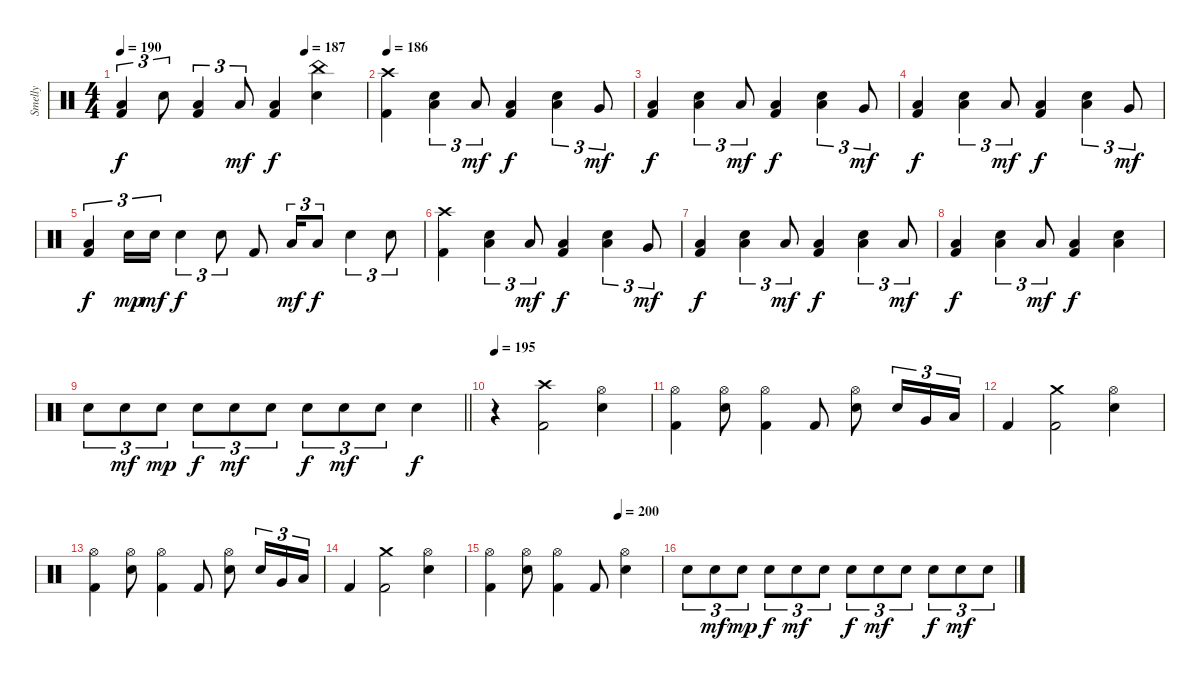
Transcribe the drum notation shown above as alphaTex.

\track ("Smelly" "Smelly") {instrument percussion}
\staff {score}
\articulation defaults
\ts (4 4)
\tempo 190
\tempo (187 0.75)
\clef neutral
\ks c
("Low Floor Tom (hit)" "Kick (hit) 2").4{tu (3 2) dy f} "Electric Snare (hit)".8{tu (3 2)} ("Low Floor Tom (hit)" "Kick (hit) 2").4{tu (3 2)} "Low Floor Tom (hit)".8{tu (3 2) dy mf} ("Low Floor Tom (hit)" "Kick (hit) 2").4{dy f} ("China (hit)" "Electric Snare (hit)").4 |
\tempo 186
("Crash high (hit)" "Kick (hit) 2").4 ("Electric Snare (hit)" "Low Floor Tom (hit)").4{tu (3 2)} "Low Floor Tom (hit)".8{tu (3 2) dy mf} ("Low Floor Tom (hit)" "Kick (hit) 2").4{dy f} ("Electric Snare (hit)" "Low Floor Tom (hit)").4{tu (3 2)} "Very Low Tom (hit)".8{tu (3 2) dy mf} |
("Low Floor Tom (hit)" "Kick (hit) 2").4{dy f} ("Electric Snare (hit)" "Low Floor Tom (hit)").4{tu (3 2)} "Low Floor Tom (hit)".8{tu (3 2) dy mf} ("Low Floor Tom (hit)" "Kick (hit) 2").4{dy f} ("Electric Snare (hit)" "Low Floor Tom (hit)").4{tu (3 2)} "Very Low Tom (hit)".8{tu (3 2) dy mf} |
("Low Floor Tom (hit)" "Kick (hit) 2").4{dy f} ("Electric Snare (hit)" "Low Floor Tom (hit)").4{tu (3 2)} "Low Floor Tom (hit)".8{tu (3 2) dy mf} ("Low Floor Tom (hit)" "Kick (hit) 2").4{dy f} ("Electric Snare (hit)" "Low Floor Tom (hit)").4{tu (3 2)} "Very Low Tom (hit)".8{tu (3 2) dy mf} |
("Low Floor Tom (hit)" "Kick (hit) 2").4{tu (3 2) dy f} "Electric Snare (hit)".16{tu (3 2) dy mp} "Electric Snare (hit)".16{tu (3 2) dy mf} "Electric Snare (hit)".4{tu (3 2) dy f} "Electric Snare (hit)".8{tu (3 2)} "Kick (hit) 2".8 "Low Tom (hit)".16{tu (3 2) dy mf} "Low Tom (hit)".8{tu (3 2) dy f} "Electric Snare (hit)".4{tu (3 2)} "Electric Snare (hit)".8{tu (3 2)} |
("Crash high (hit)" "Kick (hit) 2").4 ("Electric Snare (hit)" "Low Floor Tom (hit)").4{tu (3 2)} "Low Floor Tom (hit)".8{tu (3 2) dy mf} ("Low Floor Tom (hit)" "Kick (hit) 2").4{dy f} ("Electric Snare (hit)" "Low Floor Tom (hit)").4{tu (3 2)} "Very Low Tom (hit)".8{tu (3 2) dy mf} |
("Low Floor Tom (hit)" "Kick (hit) 2").4{dy f} ("Electric Snare (hit)" "Low Floor Tom (hit)").4{tu (3 2)} "Low Floor Tom (hit)".8{tu (3 2) dy mf} ("Low Floor Tom (hit)" "Kick (hit) 2").4{dy f} ("Electric Snare (hit)" "Low Floor Tom (hit)").4{tu (3 2)} "Low Floor Tom (hit)".8{tu (3 2) dy mf} |
("Low Floor Tom (hit)" "Kick (hit) 2").4{dy f} ("Electric Snare (hit)" "Low Floor Tom (hit)").4{tu (3 2)} "Low Floor Tom (hit)".8{tu (3 2) dy mf} ("Low Floor Tom (hit)" "Kick (hit) 2").4{dy f} ("Electric Snare (hit)" "Low Floor Tom (hit)").4 |
\barLineRight lightlight "Electric Snare (hit)".8{tu (3 2)} "Electric Snare (hit)".8{tu (3 2) dy mf} "Electric Snare (hit)".8{tu (3 2) dy mp} "Electric Snare (hit)".8{tu (3 2) dy f} "Electric Snare (hit)".8{tu (3 2) dy mf} "Electric Snare (hit)".8{tu (3 2)} "Electric Snare (hit)".8{tu (3 2) dy f} "Electric Snare (hit)".8{tu (3 2) dy mf} "Electric Snare (hit)".8{tu (3 2)} "Electric Snare (hit)".4{dy f}
|
\section ("" "")
\tempo 195
r.4 ("Crash high (hit)" "Kick (hit) 2").2 ("Hi-Hat (open)" "Electric Snare (hit)").4 |
("Hi-Hat (open)" "Kick (hit) 2").4 ("Hi-Hat (open)" "Electric Snare (hit)").8 ("Hi-Hat (open)" "Kick (hit) 2").4 "Kick (hit) 2".8 ("Hi-Hat (open)" "Electric Snare (hit)").8 "Electric Snare (hit)".16{tu (3 2)} "Very Low Tom (hit)".16{tu (3 2)} "Low Floor Tom (hit)".16{tu (3 2)} |
"Kick (hit) 2".4 ("Crash medium (hit)" "Kick (hit) 2").2 ("Hi-Hat (open)" "Electric Snare (hit)").4 |
("Hi-Hat (open)" "Kick (hit) 2").4 ("Hi-Hat (open)" "Electric Snare (hit)").8 ("Hi-Hat (open)" "Kick (hit) 2").4 "Kick (hit) 2".8 ("Hi-Hat (open)" "Electric Snare (hit)").8 "Electric Snare (hit)".16{tu (3 2)} "Very Low Tom (hit)".16{tu (3 2)} "Low Floor Tom (hit)".16{tu (3 2)} |
"Kick (hit) 2".4 ("Crash medium (hit)" "Kick (hit) 2").2 ("Hi-Hat (open)" "Electric Snare (hit)").4 |
\tempo (200 0.75)
("Hi-Hat (open)" "Kick (hit) 2").4 ("Hi-Hat (open)" "Electric Snare (hit)").8 ("Hi-Hat (open)" "Kick (hit) 2").4 "Kick (hit) 2".8 ("Hi-Hat (open)" "Electric Snare (hit)").4 |
"Electric Snare (hit)".8{tu (3 2)} "Electric Snare (hit)".8{tu (3 2) dy mf} "Electric Snare (hit)".8{tu (3 2) dy mp} "Electric Snare (hit)".8{tu (3 2) dy f} "Electric Snare (hit)".8{tu (3 2) dy mf} "Electric Snare (hit)".8{tu (3 2)} "Electric Snare (hit)".8{tu (3 2) dy f} "Electric Snare (hit)".8{tu (3 2) dy mf} "Electric Snare (hit)".8{tu (3 2)} "Electric Snare (hit)".8{tu (3 2) dy f} "Electric Snare (hit)".8{tu (3 2) dy mf} "Electric Snare (hit)".8{tu (3 2)}
